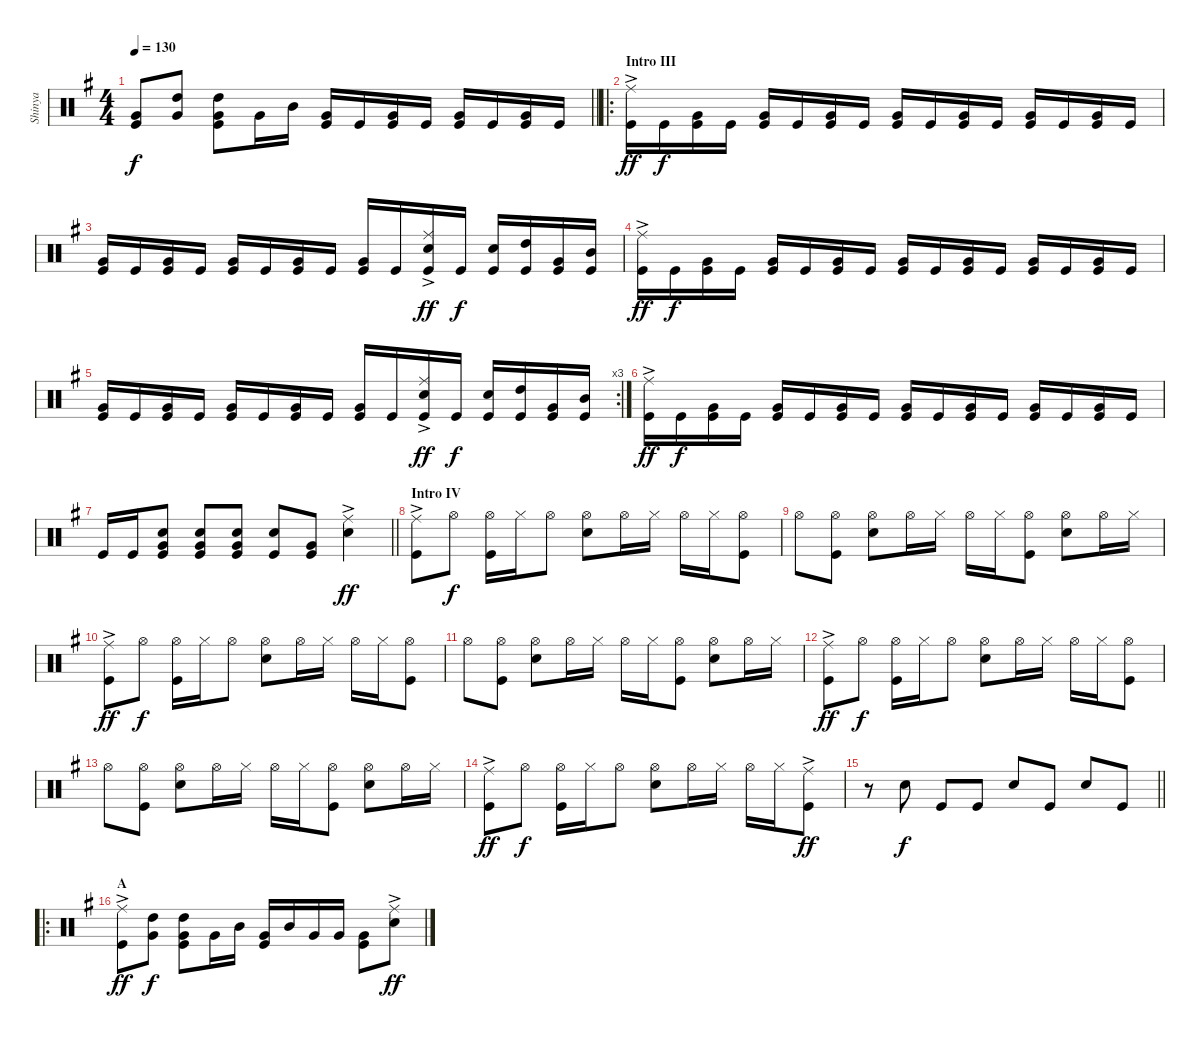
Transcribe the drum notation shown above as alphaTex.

\track ("Shinya" "Shinya") {instrument percussion}
\staff {score}
\articulation defaults
\ts (4 4)
\tempo 130
\clef neutral
\barLineRight lightlight
\ks eminor
("Very Low Tom (hit)" "Kick (hit)").8{dy f} ("High Tom (hit)" "Very Low Tom (hit)").8 ("High Tom (hit)" "Very Low Tom (hit)" "Kick (hit)").8 "Very Low Tom (hit)".16 "Mid Tom (hit)".16 ("Very Low Tom (hit)" "Kick (hit)").16 "Kick (hit)".16 ("Very Low Tom (hit)" "Kick (hit)").16 "Kick (hit)".16 ("Very Low Tom (hit)" "Kick (hit)").16 "Kick (hit)".16 ("Very Low Tom (hit)" "Kick (hit)").16 "Kick (hit)".16 |
\ro
\section ("" "Intro III")
("Ride (middle)"{ac} "Kick (hit)").16{dy ff} "Kick (hit)".16{dy f} ("Very Low Tom (hit)" "Kick (hit)").16 "Kick (hit)".16 ("Very Low Tom (hit)" "Kick (hit)").16 "Kick (hit)".16 ("Very Low Tom (hit)" "Kick (hit)").16 "Kick (hit)".16 ("Very Low Tom (hit)" "Kick (hit)").16 "Kick (hit)".16 ("Very Low Tom (hit)" "Kick (hit)").16 "Kick (hit)".16 ("Very Low Tom (hit)" "Kick (hit)").16 "Kick (hit)".16 ("Very Low Tom (hit)" "Kick (hit)").16 "Kick (hit)".16 |
("Very Low Tom (hit)" "Kick (hit)").16 "Kick (hit)".16 ("Very Low Tom (hit)" "Kick (hit)").16 "Kick (hit)".16 ("Very Low Tom (hit)" "Kick (hit)").16 "Kick (hit)".16 ("Very Low Tom (hit)" "Kick (hit)").16 "Kick (hit)".16 ("Very Low Tom (hit)" "Kick (hit)").16 "Kick (hit)".16 ("Ride (middle)"{ac} "Snare (hit) 2" "Kick (hit)").16{dy ff} "Kick (hit)".16{dy f} ("Snare (hit) 2" "Kick (hit)").16 ("High Tom (hit)" "Kick (hit)").16 ("Very Low Tom (hit)" "Kick (hit)").16 ("Mid Tom (hit)" "Kick (hit)").16 |
("Ride (middle)"{ac} "Kick (hit)").16{dy ff} "Kick (hit)".16{dy f} ("Very Low Tom (hit)" "Kick (hit)").16 "Kick (hit)".16 ("Very Low Tom (hit)" "Kick (hit)").16 "Kick (hit)".16 ("Very Low Tom (hit)" "Kick (hit)").16 "Kick (hit)".16 ("Very Low Tom (hit)" "Kick (hit)").16 "Kick (hit)".16 ("Very Low Tom (hit)" "Kick (hit)").16 "Kick (hit)".16 ("Very Low Tom (hit)" "Kick (hit)").16 "Kick (hit)".16 ("Very Low Tom (hit)" "Kick (hit)").16 "Kick (hit)".16 |
\rc 3
("Very Low Tom (hit)" "Kick (hit)").16 "Kick (hit)".16 ("Very Low Tom (hit)" "Kick (hit)").16 "Kick (hit)".16 ("Very Low Tom (hit)" "Kick (hit)").16 "Kick (hit)".16 ("Very Low Tom (hit)" "Kick (hit)").16 "Kick (hit)".16 ("Very Low Tom (hit)" "Kick (hit)").16 "Kick (hit)".16 ("Ride (middle)"{ac} "Snare (hit) 2" "Kick (hit)").16{dy ff} "Kick (hit)".16{dy f} ("Snare (hit) 2" "Kick (hit)").16 ("High Tom (hit)" "Kick (hit)").16 ("Very Low Tom (hit)" "Kick (hit)").16 ("Mid Tom (hit)" "Kick (hit)").16 |
("Ride (middle)"{ac} "Kick (hit)").16{dy ff} "Kick (hit)".16{dy f} ("Very Low Tom (hit)" "Kick (hit)").16 "Kick (hit)".16 ("Very Low Tom (hit)" "Kick (hit)").16 "Kick (hit)".16 ("Very Low Tom (hit)" "Kick (hit)").16 "Kick (hit)".16 ("Very Low Tom (hit)" "Kick (hit)").16 "Kick (hit)".16 ("Very Low Tom (hit)" "Kick (hit)").16 "Kick (hit)".16 ("Very Low Tom (hit)" "Kick (hit)").16 "Kick (hit)".16 ("Very Low Tom (hit)" "Kick (hit)").16 "Kick (hit)".16 |
\barLineRight lightlight "Kick (hit)".16 "Kick (hit)".16
("Snare (hit) 2" "Very Low Tom (hit)" "Kick (hit)").8 ("Snare (hit) 2" "Very Low Tom (hit)" "Kick (hit)").8 ("Snare (hit) 2" "Very Low Tom (hit)" "Kick (hit)").8 ("Snare (hit) 2" "Kick (hit)").8 ("Very Low Tom (hit)" "Kick (hit)").8 ("Ride (middle)"{ac} "Snare (hit) 2").4{dy ff} |
\section ("" "Intro IV")
("Ride (middle)"{ac} "Kick (hit)").8 "Hi-Hat (open)".8{dy f} ("Hi-Hat (open)" "Kick (hit)").16 "Hi-Hat (closed)".16 "Hi-Hat (open)".8 ("Hi-Hat (open)" "Snare (hit) 2").8 "Hi-Hat (open)".16 "Hi-Hat (closed)".16 "Hi-Hat (open)".16 "Hi-Hat (closed)".16 ("Hi-Hat (open)" "Kick (hit)").8 |
"Hi-Hat (open)".8 ("Hi-Hat (open)" "Kick (hit)").8 ("Hi-Hat (open)" "Snare (hit) 2").8 "Hi-Hat (open)".16 "Hi-Hat (closed)".16 "Hi-Hat (open)".16 "Hi-Hat (closed)".16 ("Hi-Hat (open)" "Kick (hit)").8 ("Hi-Hat (open)" "Snare (hit) 2").8 "Hi-Hat (open)".16 "Hi-Hat (closed)".16 |
("Ride (middle)"{ac} "Kick (hit)").8{dy ff} "Hi-Hat (open)".8{dy f} ("Hi-Hat (open)" "Kick (hit)").16 "Hi-Hat (closed)".16 "Hi-Hat (open)".8 ("Hi-Hat (open)" "Snare (hit) 2").8 "Hi-Hat (open)".16 "Hi-Hat (closed)".16 "Hi-Hat (open)".16 "Hi-Hat (closed)".16 ("Hi-Hat (open)" "Kick (hit)").8 |
"Hi-Hat (open)".8 ("Hi-Hat (open)" "Kick (hit)").8 ("Hi-Hat (open)" "Snare (hit) 2").8 "Hi-Hat (open)".16 "Hi-Hat (closed)".16 "Hi-Hat (open)".16 "Hi-Hat (closed)".16 ("Hi-Hat (open)" "Kick (hit)").8 ("Hi-Hat (open)" "Snare (hit) 2").8 "Hi-Hat (open)".16 "Hi-Hat (closed)".16 |
("Ride (middle)"{ac} "Kick (hit)").8{dy ff} "Hi-Hat (open)".8{dy f} ("Hi-Hat (open)" "Kick (hit)").16 "Hi-Hat (closed)".16 "Hi-Hat (open)".8 ("Hi-Hat (open)" "Snare (hit) 2").8 "Hi-Hat (open)".16 "Hi-Hat (closed)".16 "Hi-Hat (open)".16 "Hi-Hat (closed)".16 ("Hi-Hat (open)" "Kick (hit)").8 |
"Hi-Hat (open)".8 ("Hi-Hat (open)" "Kick (hit)").8 ("Hi-Hat (open)" "Snare (hit) 2").8 "Hi-Hat (open)".16 "Hi-Hat (closed)".16 "Hi-Hat (open)".16 "Hi-Hat (closed)".16 ("Hi-Hat (open)" "Kick (hit)").8 ("Hi-Hat (open)" "Snare (hit) 2").8 "Hi-Hat (open)".16 "Hi-Hat (closed)".16 |
("Ride (middle)"{ac} "Kick (hit)").8{dy ff} "Hi-Hat (open)".8{dy f} ("Hi-Hat (open)" "Kick (hit)").16 "Hi-Hat (closed)".16 "Hi-Hat (open)".8 ("Hi-Hat (open)" "Snare (hit) 2").8 "Hi-Hat (open)".16 "Hi-Hat (closed)".16 "Hi-Hat (open)".16 "Hi-Hat (closed)".16 ("Ride (middle)"{ac} "Kick (hit)").8{dy ff} |
\barLineRight lightlight
r.8 "Snare (hit) 2".8{dy f} "Kick (hit)".8 "Kick (hit)".8 "Snare (hit) 2".8 "Kick (hit)".8 "Snare (hit) 2".8 "Kick (hit)".8 |
\ro
\section ("" "A")
("Ride (middle)"{ac} "Kick (hit)").8{dy ff} ("High Tom (hit)" "Very Low Tom (hit)").8{dy f} ("High Tom (hit)" "Very Low Tom (hit)" "Kick (hit)").8 "Very Low Tom (hit)".16 "Mid Tom (hit)".16 ("Very Low Tom (hit)" "Kick (hit)").16 "Mid Tom (hit)".16 "Very Low Tom (hit)".16 "Very Low Tom (hit)".16 ("Very Low Tom (hit)" "Kick (hit)").8 ("Ride (middle)"{ac} "Snare (hit) 2").8{dy ff}
